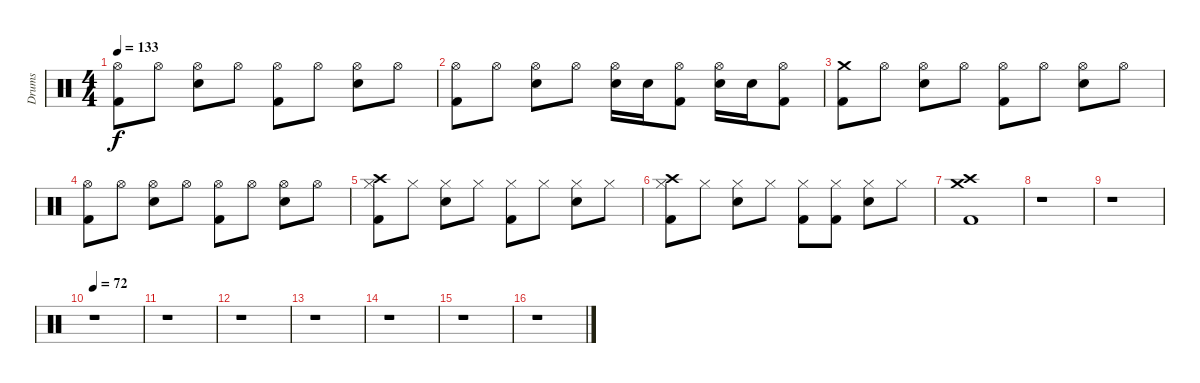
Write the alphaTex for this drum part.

\track ("Drums" "Drums") {instrument percussion}
\staff {score}
\articulation defaults
\ts (4 4)
\tempo 133
\clef neutral
\ks c
("Hi-Hat (open)" "Kick (hit) 2").8{dy f} "Hi-Hat (open)".8 ("Hi-Hat (open)" "Snare (hit) 2").8 "Hi-Hat (open)".8 ("Hi-Hat (open)" "Kick (hit) 2").8 "Hi-Hat (open)".8 ("Hi-Hat (open)" "Snare (hit) 2").8 "Hi-Hat (open)".8 |
("Hi-Hat (open)" "Kick (hit) 2").8 "Hi-Hat (open)".8 ("Hi-Hat (open)" "Snare (hit) 2").8 "Hi-Hat (open)".8 ("Hi-Hat (open)" "Snare (hit) 2").16 "Snare (hit) 2".16 ("Hi-Hat (open)" "Kick (hit) 2").8 ("Hi-Hat (open)" "Snare (hit) 2").16 "Snare (hit) 2".16 ("Hi-Hat (open)" "Kick (hit) 2").8 |
("Crash medium (hit)" "Kick (hit) 2").8 "Hi-Hat (open)".8 ("Hi-Hat (open)" "Snare (hit) 2").8 "Hi-Hat (open)".8 ("Hi-Hat (open)" "Kick (hit) 2").8 "Hi-Hat (open)".8 ("Hi-Hat (open)" "Snare (hit) 2").8 "Hi-Hat (open)".8 |
("Hi-Hat (open)" "Kick (hit) 2").8 "Hi-Hat (open)".8 ("Hi-Hat (open)" "Snare (hit) 2").8 "Hi-Hat (open)".8 ("Hi-Hat (open)" "Kick (hit) 2").8 "Hi-Hat (open)".8 ("Hi-Hat (open)" "Snare (hit) 2").8 "Hi-Hat (open)".8 |
("Crash high (hit)" "Hi-Hat (closed)" "Kick (hit) 2").8 "Hi-Hat (closed)".8 ("Hi-Hat (closed)" "Snare (hit) 2").8 "Hi-Hat (closed)".8 ("Hi-Hat (closed)" "Kick (hit) 2").8 "Hi-Hat (closed)".8 ("Hi-Hat (closed)" "Snare (hit) 2").8 "Hi-Hat (closed)".8 |
("Crash high (hit)" "Hi-Hat (closed)" "Kick (hit) 2").8 "Hi-Hat (closed)".8 ("Hi-Hat (closed)" "Snare (hit) 2").8 "Hi-Hat (closed)".8 ("Hi-Hat (closed)" "Kick (hit) 2").8 ("Hi-Hat (closed)" "Kick (hit) 2").8 ("Hi-Hat (closed)" "Snare (hit) 2").8 "Hi-Hat (closed)".8 |
("Crash medium (hit)" "Crash high (hit)" "Kick (hit) 2").1 |
r.1 |
r.1 |
\tempo 72
r.1 |
r.1 |
r.1 |
r.1 |
r.1 |
r.1 |
r.1
